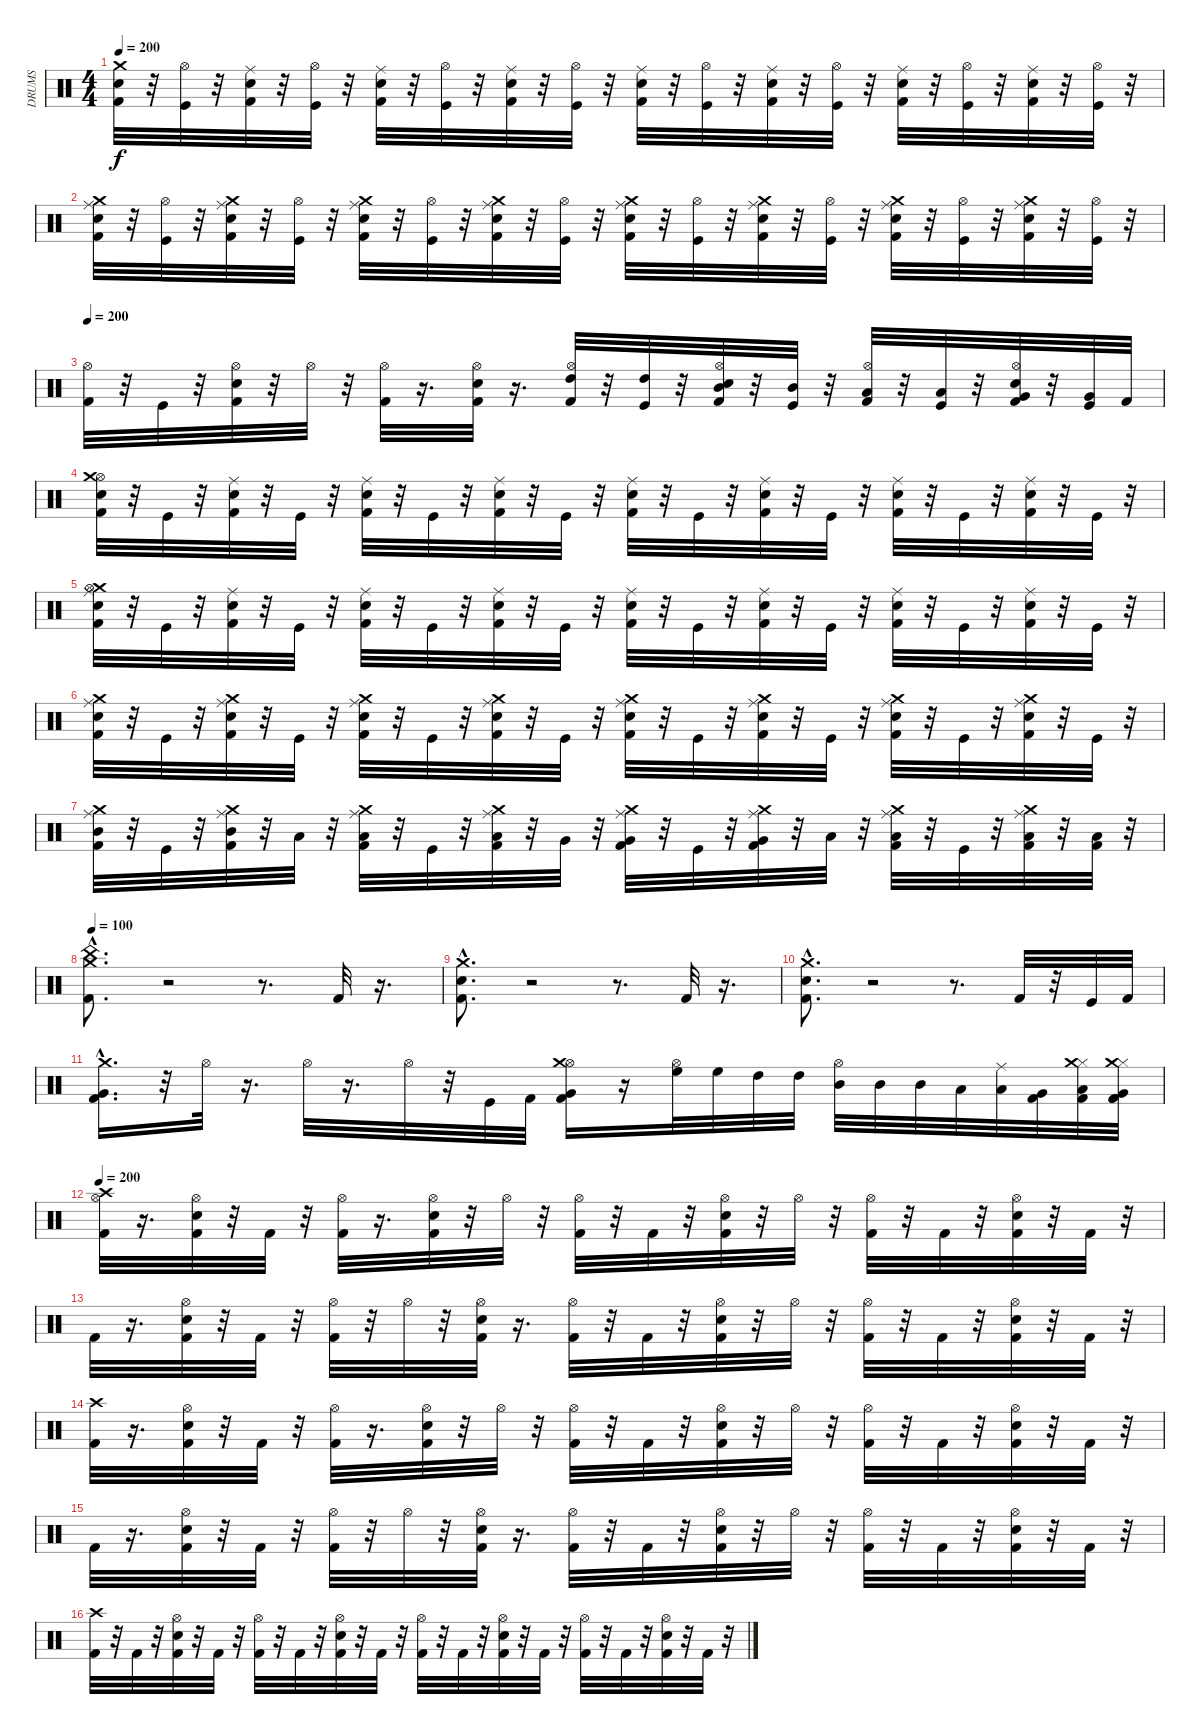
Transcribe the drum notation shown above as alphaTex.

\track ("DRUMS" "DRUMS") {instrument percussion}
\staff {score}
\articulation defaults
\ts (4 4)
\tempo 200
\clef neutral
\ks c
("Crash medium (hit)" "Snare (hit) 2" "Kick (hit) 2").32{dy f} r.32 ("Kick (hit)" "Hi-Hat (open)").32 r.32 ("Snare (hit) 2" "Ride (middle)" "Kick (hit) 2").32 r.32 ("Kick (hit)" "Hi-Hat (open)").32 r.32 ("Snare (hit) 2" "Ride (middle)" "Kick (hit) 2").32 r.32 ("Kick (hit)" "Hi-Hat (open)").32 r.32 ("Snare (hit) 2" "Kick (hit) 2" "Ride (middle)").32 r.32 ("Kick (hit)" "Hi-Hat (open)").32 r.32 ("Snare (hit) 2" "Kick (hit) 2" "Ride (middle)").32 r.32 ("Kick (hit)" "Hi-Hat (open)").32 r.32 ("Ride (middle)" "Snare (hit) 2" "Kick (hit) 2").32 r.32 ("Kick (hit)" "Hi-Hat (open)").32 r.32 ("Ride (middle)" "Snare (hit) 2" "Kick (hit) 2").32 r.32 ("Kick (hit)" "Hi-Hat (open)").32 r.32 ("Ride (middle)" "Kick (hit) 2" "Snare (hit) 2").32 r.32 ("Hi-Hat (open)" "Kick (hit)").32 r.32 |
("Crash medium (hit)" "Kick (hit) 2" "Ride (middle)" "Snare (hit) 2").32 r.32 ("Kick (hit)" "Hi-Hat (open)").32 r.32 ("Snare (hit) 2" "Ride (middle)" "Crash medium (hit)" "Kick (hit) 2").32 r.32 ("Hi-Hat (open)" "Kick (hit)").32 r.32 ("Snare (hit) 2" "Crash medium (hit)" "Kick (hit) 2" "Ride (middle)").32 r.32 ("Kick (hit)" "Hi-Hat (open)").32 r.32 ("Ride (middle)" "Snare (hit) 2" "Crash medium (hit)" "Kick (hit) 2").32 r.32 ("Hi-Hat (open)" "Kick (hit)").32 r.32 ("Ride (middle)" "Kick (hit) 2" "Snare (hit) 2" "Crash medium (hit)").32 r.32 ("Kick (hit)" "Hi-Hat (open)").32 r.32 ("Kick (hit) 2" "Crash medium (hit)" "Snare (hit) 2" "Ride (middle)").32 r.32 ("Hi-Hat (open)" "Kick (hit)").32 r.32 ("Ride (middle)" "Snare (hit) 2" "Crash medium (hit)" "Kick (hit) 2").32 r.32 ("Kick (hit)" "Hi-Hat (open)").32 r.32 ("Crash medium (hit)" "Snare (hit) 2" "Ride (middle)" "Kick (hit) 2").32 r.32 ("Hi-Hat (open)" "Kick (hit)").32 r.32 |
\tempo 200
("Kick (hit) 2" "Hi-Hat (open)").32 r.32 "Kick (hit)".32 r.32 ("Hi-Hat (open)" "Snare (hit) 2" "Kick (hit) 2").32 r.32 "Hi-Hat (open)".32 r.32 ("Kick (hit) 2" "Hi-Hat (open)").32 r.16{d} ("Kick (hit) 2" "Snare (hit) 2" "Hi-Hat (open)").32 r.16{d} ("High Tom (hit)" "Kick (hit) 2" "Hi-Hat (open)").32 r.32 ("Kick (hit)" "High Tom (hit)").32 r.32 ("Snare (hit) 2" "Mid Tom (hit)" "Kick (hit) 2" "Hi-Hat (open)").32 r.32 ("Mid Tom (hit)" "Kick (hit)").32 r.32 ("Hi-Hat (open)" "Low Tom (hit)" "Kick (hit) 2").32 r.32 ("Kick (hit)" "Low Tom (hit)").32 r.32 ("Hi-Hat (open)" "Kick (hit) 2" "Very Low Tom (hit)" "Snare (hit) 2").32 r.32 ("Kick (hit)" "Very Low Tom (hit)").32 "Kick (hit) 2".32 |
("Hi-Hat (open)" "Kick (hit) 2" "Crash medium (hit)" "Snare (hit) 2").32 r.32 "Kick (hit)".32 r.32 ("Ride (middle)" "Kick (hit) 2" "Snare (hit) 2").32 r.32 "Kick (hit)".32 r.32 ("Ride (middle)" "Snare (hit) 2" "Kick (hit) 2").32 r.32 "Kick (hit)".32 r.32 ("Ride (middle)" "Snare (hit) 2" "Kick (hit) 2").32 r.32 "Kick (hit)".32 r.32 ("Kick (hit) 2" "Ride (middle)" "Snare (hit) 2").32 r.32 "Kick (hit)".32 r.32 ("Snare (hit) 2" "Ride (middle)" "Kick (hit) 2").32 r.32 "Kick (hit)".32 r.32 ("Snare (hit) 2" "Kick (hit) 2" "Ride (middle)").32 r.32 "Kick (hit)".32 r.32 ("Kick (hit) 2" "Snare (hit) 2" "Ride (middle)").32 r.32 "Kick (hit)".32 r.32 |
("Crash medium (hit)" "Snare (hit) 2" "Ride (middle)" "Hi-Hat (open)" "Kick (hit) 2").32 r.32 "Kick (hit)".32 r.32 ("Snare (hit) 2" "Kick (hit) 2" "Ride (middle)").32 r.32 "Kick (hit)".32 r.32 ("Snare (hit) 2" "Kick (hit) 2" "Ride (middle)").32 r.32 "Kick (hit)".32 r.32 ("Ride (middle)" "Snare (hit) 2" "Kick (hit) 2").32 r.32 "Kick (hit)".32 r.32 ("Kick (hit) 2" "Snare (hit) 2" "Ride (middle)").32 r.32 "Kick (hit)".32 r.32 ("Kick (hit) 2" "Snare (hit) 2" "Ride (middle)").32 r.32 "Kick (hit)".32 r.32 ("Snare (hit) 2" "Kick (hit) 2" "Ride (middle)").32 r.32 "Kick (hit)".32 r.32 ("Kick (hit) 2" "Ride (middle)" "Snare (hit) 2").32 r.32 "Kick (hit)".32 r.32 |
("Snare (hit) 2" "Ride (middle)" "Kick (hit) 2" "Crash medium (hit)").32 r.32 "Kick (hit)".32 r.32 ("Crash medium (hit)" "Snare (hit) 2" "Ride (middle)" "Kick (hit) 2").32 r.32 "Kick (hit)".32 r.32 ("Kick (hit) 2" "Snare (hit) 2" "Ride (middle)" "Crash medium (hit)").32 r.32 "Kick (hit)".32 r.32 ("Snare (hit) 2" "Ride (middle)" "Kick (hit) 2" "Crash medium (hit)").32 r.32 "Kick (hit)".32 r.32 ("Ride (middle)" "Kick (hit) 2" "Crash medium (hit)" "Snare (hit) 2").32 r.32 "Kick (hit)".32 r.32 ("Crash medium (hit)" "Kick (hit) 2" "Ride (middle)" "Snare (hit) 2").32 r.32 "Kick (hit)".32 r.32 ("Crash medium (hit)" "Snare (hit) 2" "Ride (middle)" "Kick (hit) 2").32 r.32 "Kick (hit)".32 r.32 ("Kick (hit) 2" "Crash medium (hit)" "Snare (hit) 2" "Ride (middle)").32 r.32 "Kick (hit)".32 r.32 |
("Ride (middle)" "Crash medium (hit)" "Mid Tom (hit)" "Kick (hit) 2").32 r.32 "Kick (hit)".32 r.32 ("Ride (middle)" "Kick (hit) 2" "Crash medium (hit)" "Mid Tom (hit)").32 r.32 "Low Tom (hit)".32 r.32 ("Low Tom (hit)" "Crash medium (hit)" "Kick (hit) 2" "Ride (middle)").32 r.32 "Kick (hit)".32 r.32 ("Crash medium (hit)" "Kick (hit) 2" "Ride (middle)" "Low Tom (hit)").32 r.32 "Very Low Tom (hit)".32 r.32 ("Kick (hit) 2" "Crash medium (hit)" "Ride (middle)" "Very Low Tom (hit)").32 r.32 "Kick (hit)".32 r.32 ("Very Low Tom (hit)" "Crash medium (hit)" "Ride (middle)" "Kick (hit) 2").32 r.32 "Low Floor Tom (hit)".32 r.32 ("Crash medium (hit)" "Kick (hit) 2" "Low Floor Tom (hit)" "Ride (middle)").32 r.32 "Kick (hit)".32 r.32 ("Low Floor Tom (hit)" "Kick (hit) 2" "Crash medium (hit)" "Ride (middle)").32 r.32 ("Kick (hit) 2" "Low Floor Tom (hit)").32 r.32 |
\tempo 100
("China (hit)" "Crash medium (hit)"{hac} "Kick (hit) 2"{hac}).8{d} r.2 r.8{d} "Kick (hit) 2".32 r.16{d} |
("Crash medium (hit)"{hac} "Kick (hit) 2"{hac} "Snare (hit) 2"{hac}).8{d} r.2 r.8{d} "Kick (hit) 2".32 r.16{d} |
("Crash medium (hit)"{hac} "Kick (hit) 2"{hac} "Snare (hit) 2"{hac}).8{d} r.2 r.8{d} "Kick (hit) 2".32 r.32 "Kick (hit)".32 "Kick (hit) 2".32 |
("Kick (hit) 2"{hac} "Crash medium (hit)"{hac} "Very Low Tom (hit)"{hac}).16{d} r.32 "Hi-Hat (open)".32 r.16{d} "Hi-Hat (open)".32 r.16{d} "Hi-Hat (open)".32 r.32 "Kick (hit)".32 "Kick (hit) 2".32 ("Hi-Hat (open)" "Crash medium (hit)" "Kick (hit) 2" "Very Low Tom (hit)").16 r.16 ("High Floor Tom (hit)" "Hi-Hat (open)").32 "High Floor Tom (hit)".32 "High Tom (hit)".32 "High Tom (hit)".32 ("Mid Tom (hit)" "Hi-Hat (open)").32 "Mid Tom (hit)".32 "Mid Tom (hit)".32 "Low Tom (hit)".32 ("Low Tom (hit)" "Ride (middle)").32 ("Very Low Tom (hit)" "Kick (hit) 2").32 ("Low Tom (hit)" "Hi-Hat (closed)" "Crash medium (hit)" "Kick (hit) 2").32 ("Very Low Tom (hit)" "Hi-Hat (closed)" "Crash medium (hit)" "Kick (hit) 2" "Kick (hit) 2").32 |
\tempo 200
("Kick (hit) 2" "Crash high (hit)" "Hi-Hat (open)").32 r.16{d} ("Kick (hit) 2" "Snare (hit) 2" "Hi-Hat (open)").32 r.32 "Kick (hit) 2".32 r.32 ("Hi-Hat (open)" "Kick (hit) 2").32 r.16{d} ("Snare (hit) 2" "Kick (hit) 2" "Hi-Hat (open)").32 r.32 "Hi-Hat (open)".32 r.32 ("Hi-Hat (open)" "Kick (hit) 2").32 r.32 "Kick (hit) 2".32 r.32 ("Kick (hit) 2" "Snare (hit) 2" "Hi-Hat (open)").32 r.32 "Hi-Hat (open)".32 r.32 ("Kick (hit) 2" "Hi-Hat (open)").32 r.32 "Kick (hit) 2".32 r.32 ("Snare (hit) 2" "Hi-Hat (open)" "Kick (hit) 2").32 r.32 "Kick (hit) 2".32 r.32 |
"Kick (hit) 2".32 r.16{d} ("Snare (hit) 2" "Hi-Hat (open)" "Kick (hit) 2").32 r.32 "Kick (hit) 2".32 r.32 ("Hi-Hat (open)" "Kick (hit) 2").32 r.32 "Hi-Hat (open)".32 r.32 ("Kick (hit) 2" "Snare (hit) 2" "Hi-Hat (open)").32 r.16{d} ("Hi-Hat (open)" "Kick (hit) 2").32 r.32 "Kick (hit) 2".32 r.32 ("Kick (hit) 2" "Hi-Hat (open)" "Snare (hit) 2").32 r.32 "Hi-Hat (open)".32 r.32 ("Kick (hit) 2" "Hi-Hat (open)").32 r.32 "Kick (hit) 2".32 r.32 ("Kick (hit) 2" "Hi-Hat (open)" "Snare (hit) 2").32 r.32 "Kick (hit) 2".32 r.32 |
("Crash high (hit)" "Kick (hit) 2").32 r.16{d} ("Snare (hit) 2" "Hi-Hat (open)" "Kick (hit) 2").32 r.32 "Kick (hit) 2".32 r.32 ("Kick (hit) 2" "Hi-Hat (open)").32 r.16{d} ("Hi-Hat (open)" "Snare (hit) 2" "Kick (hit) 2").32 r.32 "Hi-Hat (open)".32 r.32 ("Hi-Hat (open)" "Kick (hit) 2").32 r.32 "Kick (hit) 2".32 r.32 ("Hi-Hat (open)" "Snare (hit) 2" "Kick (hit) 2").32 r.32 "Hi-Hat (open)".32 r.32 ("Kick (hit) 2" "Hi-Hat (open)").32 r.32 "Kick (hit) 2".32 r.32 ("Snare (hit) 2" "Kick (hit) 2" "Hi-Hat (open)").32 r.32 "Kick (hit) 2".32 r.32 |
"Kick (hit) 2".32 r.16{d} ("Hi-Hat (open)" "Snare (hit) 2" "Kick (hit) 2").32 r.32 "Kick (hit) 2".32 r.32 ("Kick (hit) 2" "Hi-Hat (open)").32 r.32 "Hi-Hat (open)".32 r.32 ("Kick (hit) 2" "Snare (hit) 2" "Hi-Hat (open)").32 r.16{d} ("Kick (hit) 2" "Hi-Hat (open)").32 r.32 "Kick (hit) 2".32 r.32 ("Snare (hit) 2" "Kick (hit) 2" "Hi-Hat (open)").32 r.32 "Hi-Hat (open)".32 r.32 ("Kick (hit) 2" "Hi-Hat (open)").32 r.32 "Kick (hit) 2".32 r.32 ("Snare (hit) 2" "Kick (hit) 2" "Hi-Hat (open)").32 r.32 "Kick (hit) 2".32 r.32 |
("Kick (hit) 2" "Crash high (hit)").32 r.32 "Kick (hit) 2".32 r.32 ("Hi-Hat (open)" "Kick (hit) 2" "Snare (hit) 2").32 r.32 "Kick (hit) 2".32 r.32 ("Hi-Hat (open)" "Kick (hit) 2").32 r.32 "Kick (hit) 2".32 r.32 ("Snare (hit) 2" "Kick (hit) 2" "Hi-Hat (open)").32 r.32 "Kick (hit) 2".32 r.32 ("Kick (hit) 2" "Hi-Hat (open)").32 r.32 "Kick (hit) 2".32 r.32 ("Kick (hit) 2" "Snare (hit) 2" "Hi-Hat (open)").32 r.32 "Kick (hit) 2".32 r.32 ("Hi-Hat (open)" "Kick (hit) 2").32 r.32 "Kick (hit) 2".32 r.32 ("Hi-Hat (open)" "Snare (hit) 2" "Kick (hit) 2").32 r.32 "Kick (hit) 2".32 r.32
